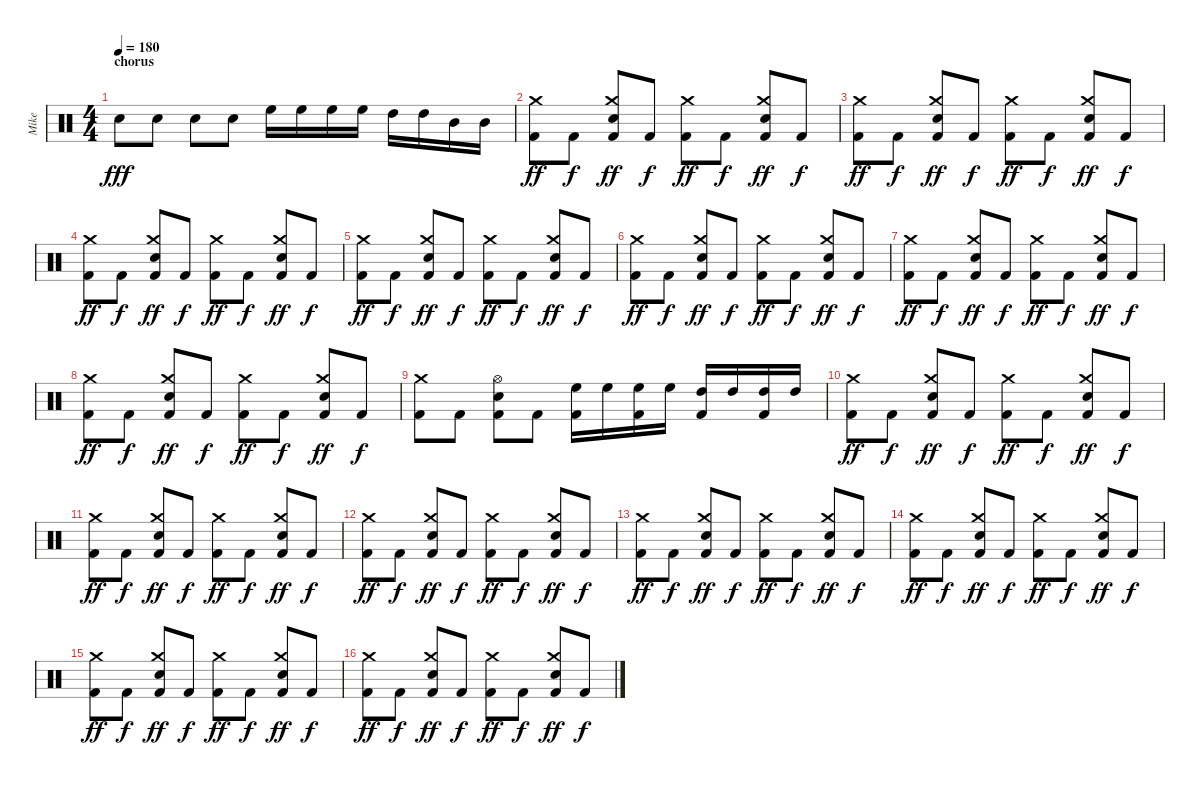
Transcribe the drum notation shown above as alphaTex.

\track ("Mike" "Mike") {instrument percussion}
\staff {score}
\articulation defaults
\ts (4 4)
\section ("" "chorus")
\tempo 180
\clef neutral
\ks c "Snare (hit) 2".8{dy fff} "Snare (hit) 2".8 "Snare (hit) 2".8 "Snare (hit) 2".8 "High Floor Tom (hit)".16 "High Floor Tom (hit)".16 "High Floor Tom (hit)".16 "High Floor Tom (hit)".16 "High Tom (hit)".16 "High Tom (hit)".16 "Mid Tom (hit)".16 "Mid Tom (hit)".16
|
("Crash medium (hit)" "Kick (hit) 2").8{dy ff} "Kick (hit) 2".8{dy f} ("Crash medium (hit)" "Snare (hit) 2" "Kick (hit) 2").8{dy ff} "Kick (hit) 2".8{dy f} ("Crash medium (hit)" "Kick (hit) 2").8{dy ff} "Kick (hit) 2".8{dy f} ("Crash medium (hit)" "Snare (hit) 2" "Kick (hit) 2").8{dy ff} "Kick (hit) 2".8{dy f} |
("Crash medium (hit)" "Kick (hit) 2").8{dy ff} "Kick (hit) 2".8{dy f} ("Crash medium (hit)" "Snare (hit) 2" "Kick (hit) 2").8{dy ff} "Kick (hit) 2".8{dy f} ("Crash medium (hit)" "Kick (hit) 2").8{dy ff} "Kick (hit) 2".8{dy f} ("Crash medium (hit)" "Snare (hit) 2" "Kick (hit) 2").8{dy ff} "Kick (hit) 2".8{dy f} |
("Crash medium (hit)" "Kick (hit) 2").8{dy ff} "Kick (hit) 2".8{dy f} ("Crash medium (hit)" "Snare (hit) 2" "Kick (hit) 2").8{dy ff} "Kick (hit) 2".8{dy f} ("Crash medium (hit)" "Kick (hit) 2").8{dy ff} "Kick (hit) 2".8{dy f} ("Crash medium (hit)" "Snare (hit) 2" "Kick (hit) 2").8{dy ff} "Kick (hit) 2".8{dy f} |
("Crash medium (hit)" "Kick (hit) 2").8{dy ff} "Kick (hit) 2".8{dy f} ("Crash medium (hit)" "Snare (hit) 2" "Kick (hit) 2").8{dy ff} "Kick (hit) 2".8{dy f} ("Crash medium (hit)" "Kick (hit) 2").8{dy ff} "Kick (hit) 2".8{dy f} ("Crash medium (hit)" "Snare (hit) 2" "Kick (hit) 2").8{dy ff} "Kick (hit) 2".8{dy f} |
("Crash medium (hit)" "Kick (hit) 2").8{dy ff} "Kick (hit) 2".8{dy f} ("Crash medium (hit)" "Snare (hit) 2" "Kick (hit) 2").8{dy ff} "Kick (hit) 2".8{dy f} ("Crash medium (hit)" "Kick (hit) 2").8{dy ff} "Kick (hit) 2".8{dy f} ("Crash medium (hit)" "Snare (hit) 2" "Kick (hit) 2").8{dy ff} "Kick (hit) 2".8{dy f} |
("Crash medium (hit)" "Kick (hit) 2").8{dy ff} "Kick (hit) 2".8{dy f} ("Crash medium (hit)" "Snare (hit) 2" "Kick (hit) 2").8{dy ff} "Kick (hit) 2".8{dy f} ("Crash medium (hit)" "Kick (hit) 2").8{dy ff} "Kick (hit) 2".8{dy f} ("Crash medium (hit)" "Snare (hit) 2" "Kick (hit) 2").8{dy ff} "Kick (hit) 2".8{dy f} |
("Crash medium (hit)" "Kick (hit) 2").8{dy ff} "Kick (hit) 2".8{dy f} ("Crash medium (hit)" "Snare (hit) 2" "Kick (hit) 2").8{dy ff} "Kick (hit) 2".8{dy f} ("Crash medium (hit)" "Kick (hit) 2").8{dy ff} "Kick (hit) 2".8{dy f} ("Crash medium (hit)" "Snare (hit) 2" "Kick (hit) 2").8{dy ff} "Kick (hit) 2".8{dy f} |
("Crash medium (hit)" "Kick (hit) 2").8 "Kick (hit) 2".8 ("Hi-Hat (open)" "Snare (hit) 2" "Kick (hit) 2").8 "Kick (hit) 2".8 ("High Floor Tom (hit)" "Kick (hit) 2").16 "High Floor Tom (hit)".16 ("High Floor Tom (hit)" "Kick (hit) 2").16 "High Floor Tom (hit)".16 ("High Tom (hit)" "Kick (hit) 2").16 "High Tom (hit)".16 ("High Tom (hit)" "Kick (hit) 2").16 "High Tom (hit)".16 |
("Crash medium (hit)" "Kick (hit) 2").8{dy ff} "Kick (hit) 2".8{dy f} ("Crash medium (hit)" "Snare (hit) 2" "Kick (hit) 2").8{dy ff} "Kick (hit) 2".8{dy f} ("Crash medium (hit)" "Kick (hit) 2").8{dy ff} "Kick (hit) 2".8{dy f} ("Crash medium (hit)" "Snare (hit) 2" "Kick (hit) 2").8{dy ff} "Kick (hit) 2".8{dy f} |
("Crash medium (hit)" "Kick (hit) 2").8{dy ff} "Kick (hit) 2".8{dy f} ("Crash medium (hit)" "Snare (hit) 2" "Kick (hit) 2").8{dy ff} "Kick (hit) 2".8{dy f} ("Crash medium (hit)" "Kick (hit) 2").8{dy ff} "Kick (hit) 2".8{dy f} ("Crash medium (hit)" "Snare (hit) 2" "Kick (hit) 2").8{dy ff} "Kick (hit) 2".8{dy f} |
("Crash medium (hit)" "Kick (hit) 2").8{dy ff} "Kick (hit) 2".8{dy f} ("Crash medium (hit)" "Snare (hit) 2" "Kick (hit) 2").8{dy ff} "Kick (hit) 2".8{dy f} ("Crash medium (hit)" "Kick (hit) 2").8{dy ff} "Kick (hit) 2".8{dy f} ("Crash medium (hit)" "Snare (hit) 2" "Kick (hit) 2").8{dy ff} "Kick (hit) 2".8{dy f} |
("Crash medium (hit)" "Kick (hit) 2").8{dy ff} "Kick (hit) 2".8{dy f} ("Crash medium (hit)" "Snare (hit) 2" "Kick (hit) 2").8{dy ff} "Kick (hit) 2".8{dy f} ("Crash medium (hit)" "Kick (hit) 2").8{dy ff} "Kick (hit) 2".8{dy f} ("Crash medium (hit)" "Snare (hit) 2" "Kick (hit) 2").8{dy ff} "Kick (hit) 2".8{dy f} |
("Crash medium (hit)" "Kick (hit) 2").8{dy ff} "Kick (hit) 2".8{dy f} ("Crash medium (hit)" "Snare (hit) 2" "Kick (hit) 2").8{dy ff} "Kick (hit) 2".8{dy f} ("Crash medium (hit)" "Kick (hit) 2").8{dy ff} "Kick (hit) 2".8{dy f} ("Crash medium (hit)" "Snare (hit) 2" "Kick (hit) 2").8{dy ff} "Kick (hit) 2".8{dy f} |
("Crash medium (hit)" "Kick (hit) 2").8{dy ff} "Kick (hit) 2".8{dy f} ("Crash medium (hit)" "Snare (hit) 2" "Kick (hit) 2").8{dy ff} "Kick (hit) 2".8{dy f} ("Crash medium (hit)" "Kick (hit) 2").8{dy ff} "Kick (hit) 2".8{dy f} ("Crash medium (hit)" "Snare (hit) 2" "Kick (hit) 2").8{dy ff} "Kick (hit) 2".8{dy f} |
("Crash medium (hit)" "Kick (hit) 2").8{dy ff} "Kick (hit) 2".8{dy f} ("Crash medium (hit)" "Snare (hit) 2" "Kick (hit) 2").8{dy ff} "Kick (hit) 2".8{dy f} ("Crash medium (hit)" "Kick (hit) 2").8{dy ff} "Kick (hit) 2".8{dy f} ("Crash medium (hit)" "Snare (hit) 2" "Kick (hit) 2").8{dy ff} "Kick (hit) 2".8{dy f}
